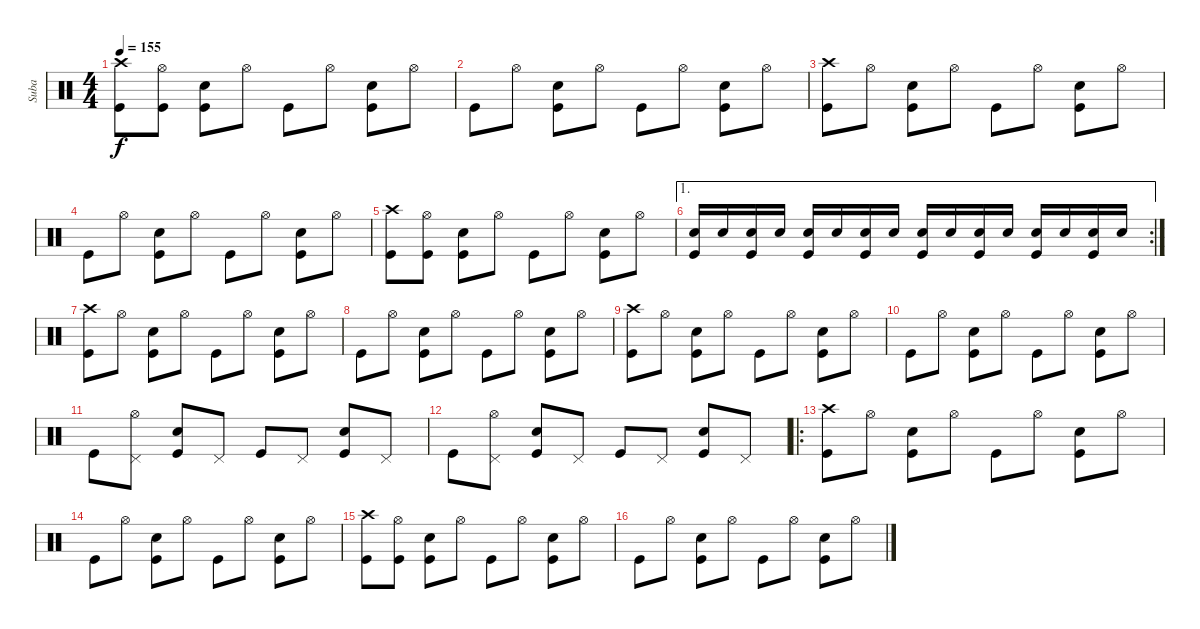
\track ("Suba" "Suba") {instrument percussion}
\staff {score}
\articulation defaults
\ts (4 4)
\tempo 155
\clef neutral
\ks c
("Crash high (hit)" "Kick (hit)").8{dy f} ("Hi-Hat (open)" "Kick (hit)").8 ("Electric Snare (hit)" "Kick (hit)").8 "Hi-Hat (open)".8 "Kick (hit)".8 "Hi-Hat (open)".8 ("Electric Snare (hit)" "Kick (hit)").8 "Hi-Hat (open)".8 |
"Kick (hit)".8 "Hi-Hat (open)".8 ("Electric Snare (hit)" "Kick (hit)").8 "Hi-Hat (open)".8 "Kick (hit)".8 "Hi-Hat (open)".8 ("Electric Snare (hit)" "Kick (hit)").8 "Hi-Hat (open)".8 |
("Crash high (hit)" "Kick (hit)").8 "Hi-Hat (open)".8 ("Electric Snare (hit)" "Kick (hit)").8 "Hi-Hat (open)".8 "Kick (hit)".8 "Hi-Hat (open)".8 ("Electric Snare (hit)" "Kick (hit)").8 "Hi-Hat (open)".8 |
"Kick (hit)".8 "Hi-Hat (open)".8 ("Electric Snare (hit)" "Kick (hit)").8 "Hi-Hat (open)".8 "Kick (hit)".8 "Hi-Hat (open)".8 ("Electric Snare (hit)" "Kick (hit)").8 "Hi-Hat (open)".8 |
("Crash high (hit)" "Kick (hit)").8 ("Hi-Hat (open)" "Kick (hit)").8 ("Electric Snare (hit)" "Kick (hit)").8 "Hi-Hat (open)".8 "Kick (hit)".8 "Hi-Hat (open)".8 ("Electric Snare (hit)" "Kick (hit)").8 "Hi-Hat (open)".8 |
\ae 1
\rc 2
("Electric Snare (hit)" "Kick (hit)").16 "Electric Snare (hit)".16 ("Electric Snare (hit)" "Kick (hit)").16 "Electric Snare (hit)".16 ("Electric Snare (hit)" "Kick (hit)").16 "Electric Snare (hit)".16 ("Electric Snare (hit)" "Kick (hit)").16 "Electric Snare (hit)".16 ("Electric Snare (hit)" "Kick (hit)").16 "Electric Snare (hit)".16 ("Electric Snare (hit)" "Kick (hit)").16 "Electric Snare (hit)".16 ("Electric Snare (hit)" "Kick (hit)").16 "Electric Snare (hit)".16 ("Electric Snare (hit)" "Kick (hit)").16 "Electric Snare (hit)".16 |
("Crash high (hit)" "Kick (hit)").8 "Hi-Hat (open)".8 ("Electric Snare (hit)" "Kick (hit)").8 "Hi-Hat (open)".8 "Kick (hit)".8 "Hi-Hat (open)".8 ("Electric Snare (hit)" "Kick (hit)").8 "Hi-Hat (open)".8 |
"Kick (hit)".8 "Hi-Hat (open)".8 ("Electric Snare (hit)" "Kick (hit)").8 "Hi-Hat (open)".8 "Kick (hit)".8 "Hi-Hat (open)".8 ("Electric Snare (hit)" "Kick (hit)").8 "Hi-Hat (open)".8 |
("Crash high (hit)" "Kick (hit)").8 "Hi-Hat (open)".8 ("Electric Snare (hit)" "Kick (hit)").8 "Hi-Hat (open)".8 "Kick (hit)".8 "Hi-Hat (open)".8 ("Electric Snare (hit)" "Kick (hit)").8 "Hi-Hat (open)".8 |
"Kick (hit)".8 "Hi-Hat (open)".8 ("Electric Snare (hit)" "Kick (hit)").8 "Hi-Hat (open)".8 "Kick (hit)".8 "Hi-Hat (open)".8 ("Electric Snare (hit)" "Kick (hit)").8 "Hi-Hat (open)".8 |
"Kick (hit)".8 ("Hi-Hat (open)" "Pedal Hi-Hat (hit)").8 ("Electric Snare (hit)" "Kick (hit)").8 "Pedal Hi-Hat (hit)".8 "Kick (hit)".8 "Pedal Hi-Hat (hit)".8 ("Electric Snare (hit)" "Kick (hit)").8 "Pedal Hi-Hat (hit)".8 |
"Kick (hit)".8 ("Hi-Hat (open)" "Pedal Hi-Hat (hit)").8 ("Electric Snare (hit)" "Kick (hit)").8 "Pedal Hi-Hat (hit)".8 "Kick (hit)".8 "Pedal Hi-Hat (hit)".8 ("Electric Snare (hit)" "Kick (hit)").8 "Pedal Hi-Hat (hit)".8 |
\ro
("Crash high (hit)" "Kick (hit)").8{volume 11} "Hi-Hat (open)".8 ("Electric Snare (hit)" "Kick (hit)").8 "Hi-Hat (open)".8 "Kick (hit)".8 "Hi-Hat (open)".8 ("Electric Snare (hit)" "Kick (hit)").8 "Hi-Hat (open)".8 |
"Kick (hit)".8 "Hi-Hat (open)".8 ("Electric Snare (hit)" "Kick (hit)").8 "Hi-Hat (open)".8 "Kick (hit)".8 "Hi-Hat (open)".8 ("Electric Snare (hit)" "Kick (hit)").8 "Hi-Hat (open)".8 |
("Crash high (hit)" "Kick (hit)").8 ("Hi-Hat (open)" "Kick (hit)").8 ("Electric Snare (hit)" "Kick (hit)").8 "Hi-Hat (open)".8 "Kick (hit)".8 "Hi-Hat (open)".8 ("Electric Snare (hit)" "Kick (hit)").8 "Hi-Hat (open)".8 |
"Kick (hit)".8 "Hi-Hat (open)".8 ("Electric Snare (hit)" "Kick (hit)").8 "Hi-Hat (open)".8 "Kick (hit)".8 "Hi-Hat (open)".8 ("Electric Snare (hit)" "Kick (hit)").8 "Hi-Hat (open)".8
